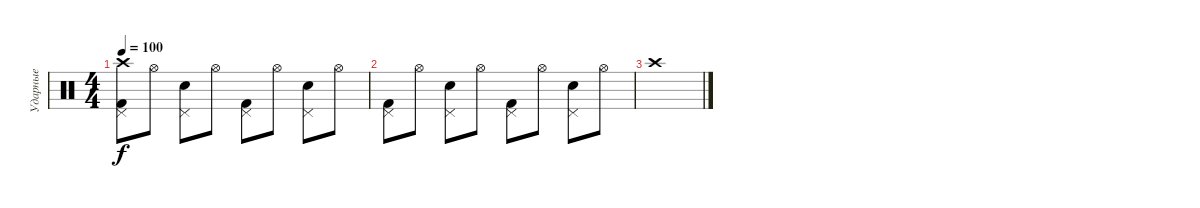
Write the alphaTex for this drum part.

\track ("Ударные" "Ударные") {instrument percussion}
\staff {score}
\articulation defaults
\ts (4 4)
\tempo 100
\clef neutral
\ks c
("Pedal Hi-Hat (hit)" "Crash high (hit)" "Kick (hit) 2").8{dy f} "Hi-Hat (open)".8 ("Snare (hit) 2" "Pedal Hi-Hat (hit)").8 "Hi-Hat (open)".8 ("Kick (hit) 2" "Pedal Hi-Hat (hit)").8 "Hi-Hat (open)".8 ("Snare (hit) 2" "Pedal Hi-Hat (hit)").8 "Hi-Hat (open)".8 |
("Pedal Hi-Hat (hit)" "Kick (hit) 2").8 "Hi-Hat (open)".8 ("Snare (hit) 2" "Pedal Hi-Hat (hit)").8 "Hi-Hat (open)".8 ("Kick (hit) 2" "Pedal Hi-Hat (hit)").8 "Hi-Hat (open)".8 ("Snare (hit) 2" "Pedal Hi-Hat (hit)").8 "Hi-Hat (open)".8 |
"Crash high (hit)".1
